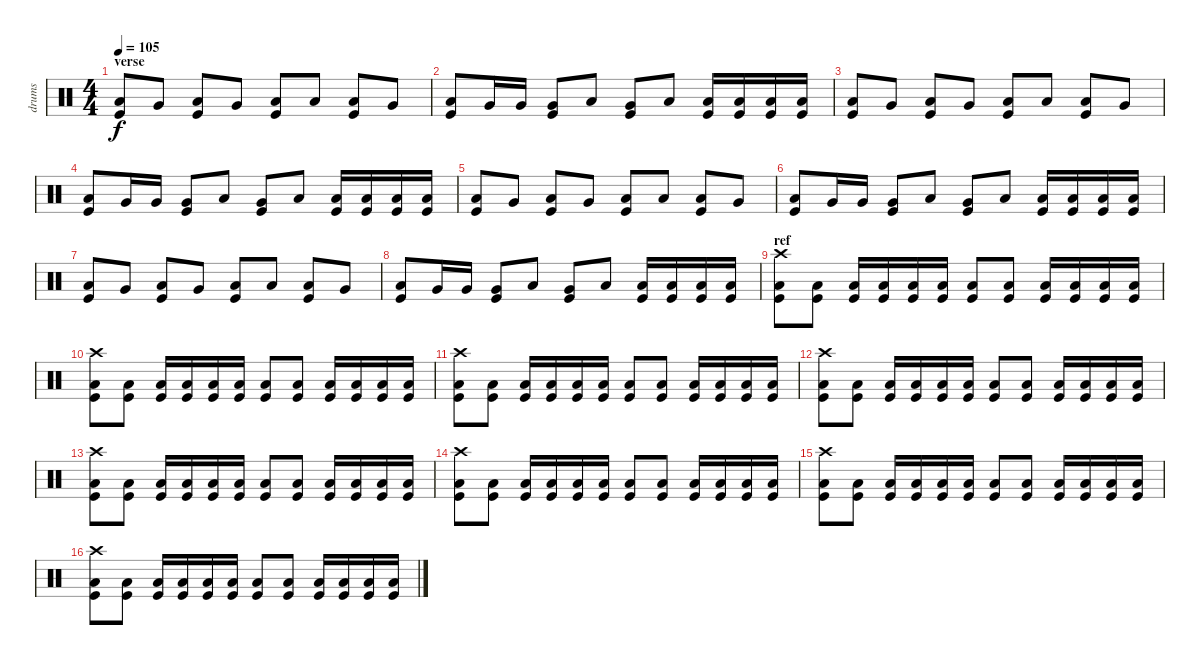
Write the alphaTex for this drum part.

\track ("drums" "drums") {instrument percussion}
\staff {score}
\articulation defaults
\ts (4 4)
\section ("" "verse")
\tempo 105
\clef neutral
\ks c
("Kick (hit)" "Low Floor Tom (hit)").8{dy f} "Very Low Tom (hit)".8 ("Kick (hit)" "Low Floor Tom (hit)").8 "Very Low Tom (hit)".8 ("Kick (hit)" "Low Floor Tom (hit)").8 "Low Floor Tom (hit)".8 ("Kick (hit)" "Low Floor Tom (hit)").8 "Very Low Tom (hit)".8 |
("Low Floor Tom (hit)" "Kick (hit)").8 "Very Low Tom (hit)".16 "Very Low Tom (hit)".16 ("Very Low Tom (hit)" "Kick (hit)").8 "Low Floor Tom (hit)".8 ("Very Low Tom (hit)" "Kick (hit)").8 "Low Floor Tom (hit)".8 ("Low Floor Tom (hit)" "Kick (hit)").16 ("Low Floor Tom (hit)" "Kick (hit)").16 ("Low Floor Tom (hit)" "Kick (hit)").16 ("Low Floor Tom (hit)" "Kick (hit)").16 |
("Kick (hit)" "Low Floor Tom (hit)").8 "Very Low Tom (hit)".8 ("Kick (hit)" "Low Floor Tom (hit)").8 "Very Low Tom (hit)".8 ("Kick (hit)" "Low Floor Tom (hit)").8 "Low Floor Tom (hit)".8 ("Kick (hit)" "Low Floor Tom (hit)").8 "Very Low Tom (hit)".8 |
("Low Floor Tom (hit)" "Kick (hit)").8 "Very Low Tom (hit)".16 "Very Low Tom (hit)".16 ("Very Low Tom (hit)" "Kick (hit)").8 "Low Floor Tom (hit)".8 ("Very Low Tom (hit)" "Kick (hit)").8 "Low Floor Tom (hit)".8 ("Low Floor Tom (hit)" "Kick (hit)").16 ("Low Floor Tom (hit)" "Kick (hit)").16 ("Low Floor Tom (hit)" "Kick (hit)").16 ("Low Floor Tom (hit)" "Kick (hit)").16 |
("Kick (hit)" "Low Floor Tom (hit)").8 "Very Low Tom (hit)".8 ("Kick (hit)" "Low Floor Tom (hit)").8 "Very Low Tom (hit)".8 ("Kick (hit)" "Low Floor Tom (hit)").8 "Low Floor Tom (hit)".8 ("Kick (hit)" "Low Floor Tom (hit)").8 "Very Low Tom (hit)".8 |
("Low Floor Tom (hit)" "Kick (hit)").8 "Very Low Tom (hit)".16 "Very Low Tom (hit)".16 ("Very Low Tom (hit)" "Kick (hit)").8 "Low Floor Tom (hit)".8 ("Very Low Tom (hit)" "Kick (hit)").8 "Low Floor Tom (hit)".8 ("Low Floor Tom (hit)" "Kick (hit)").16 ("Low Floor Tom (hit)" "Kick (hit)").16 ("Low Floor Tom (hit)" "Kick (hit)").16 ("Low Floor Tom (hit)" "Kick (hit)").16 |
("Kick (hit)" "Low Floor Tom (hit)").8 "Very Low Tom (hit)".8 ("Kick (hit)" "Low Floor Tom (hit)").8 "Very Low Tom (hit)".8 ("Kick (hit)" "Low Floor Tom (hit)").8 "Low Floor Tom (hit)".8 ("Kick (hit)" "Low Floor Tom (hit)").8 "Very Low Tom (hit)".8 |
("Low Floor Tom (hit)" "Kick (hit)").8 "Very Low Tom (hit)".16 "Very Low Tom (hit)".16 ("Very Low Tom (hit)" "Kick (hit)").8 "Low Floor Tom (hit)".8 ("Very Low Tom (hit)" "Kick (hit)").8 "Low Floor Tom (hit)".8 ("Low Floor Tom (hit)" "Kick (hit)").16 ("Low Floor Tom (hit)" "Kick (hit)").16 ("Low Floor Tom (hit)" "Kick (hit)").16 ("Low Floor Tom (hit)" "Kick (hit)").16 |
\section ("" "ref")
("Crash high (hit)" "Low Floor Tom (hit)" "Kick (hit)").8 ("Low Floor Tom (hit)" "Kick (hit)").8 ("Low Floor Tom (hit)" "Kick (hit)").16 ("Low Floor Tom (hit)" "Kick (hit)").16 ("Low Floor Tom (hit)" "Kick (hit)").16 ("Low Floor Tom (hit)" "Kick (hit)").16 ("Low Floor Tom (hit)" "Kick (hit)").8 ("Low Floor Tom (hit)" "Kick (hit)").8 ("Low Floor Tom (hit)" "Kick (hit)").16 ("Low Floor Tom (hit)" "Kick (hit)").16 ("Low Floor Tom (hit)" "Kick (hit)").16 ("Low Floor Tom (hit)" "Kick (hit)").16 |
("Crash high (hit)" "Low Floor Tom (hit)" "Kick (hit)").8 ("Low Floor Tom (hit)" "Kick (hit)").8 ("Low Floor Tom (hit)" "Kick (hit)").16 ("Low Floor Tom (hit)" "Kick (hit)").16 ("Low Floor Tom (hit)" "Kick (hit)").16 ("Low Floor Tom (hit)" "Kick (hit)").16 ("Low Floor Tom (hit)" "Kick (hit)").8 ("Low Floor Tom (hit)" "Kick (hit)").8 ("Low Floor Tom (hit)" "Kick (hit)").16 ("Low Floor Tom (hit)" "Kick (hit)").16 ("Low Floor Tom (hit)" "Kick (hit)").16 ("Low Floor Tom (hit)" "Kick (hit)").16 |
("Crash high (hit)" "Low Floor Tom (hit)" "Kick (hit)").8 ("Low Floor Tom (hit)" "Kick (hit)").8 ("Low Floor Tom (hit)" "Kick (hit)").16 ("Low Floor Tom (hit)" "Kick (hit)").16 ("Low Floor Tom (hit)" "Kick (hit)").16 ("Low Floor Tom (hit)" "Kick (hit)").16 ("Low Floor Tom (hit)" "Kick (hit)").8 ("Low Floor Tom (hit)" "Kick (hit)").8 ("Low Floor Tom (hit)" "Kick (hit)").16 ("Low Floor Tom (hit)" "Kick (hit)").16 ("Low Floor Tom (hit)" "Kick (hit)").16 ("Low Floor Tom (hit)" "Kick (hit)").16 |
("Crash high (hit)" "Low Floor Tom (hit)" "Kick (hit)").8 ("Low Floor Tom (hit)" "Kick (hit)").8 ("Low Floor Tom (hit)" "Kick (hit)").16 ("Low Floor Tom (hit)" "Kick (hit)").16 ("Low Floor Tom (hit)" "Kick (hit)").16 ("Low Floor Tom (hit)" "Kick (hit)").16 ("Low Floor Tom (hit)" "Kick (hit)").8 ("Low Floor Tom (hit)" "Kick (hit)").8 ("Low Floor Tom (hit)" "Kick (hit)").16 ("Low Floor Tom (hit)" "Kick (hit)").16 ("Low Floor Tom (hit)" "Kick (hit)").16 ("Low Floor Tom (hit)" "Kick (hit)").16 |
("Crash high (hit)" "Low Floor Tom (hit)" "Kick (hit)").8 ("Low Floor Tom (hit)" "Kick (hit)").8 ("Low Floor Tom (hit)" "Kick (hit)").16 ("Low Floor Tom (hit)" "Kick (hit)").16 ("Low Floor Tom (hit)" "Kick (hit)").16 ("Low Floor Tom (hit)" "Kick (hit)").16 ("Low Floor Tom (hit)" "Kick (hit)").8 ("Low Floor Tom (hit)" "Kick (hit)").8 ("Low Floor Tom (hit)" "Kick (hit)").16 ("Low Floor Tom (hit)" "Kick (hit)").16 ("Low Floor Tom (hit)" "Kick (hit)").16 ("Low Floor Tom (hit)" "Kick (hit)").16 |
("Crash high (hit)" "Low Floor Tom (hit)" "Kick (hit)").8 ("Low Floor Tom (hit)" "Kick (hit)").8 ("Low Floor Tom (hit)" "Kick (hit)").16 ("Low Floor Tom (hit)" "Kick (hit)").16 ("Low Floor Tom (hit)" "Kick (hit)").16 ("Low Floor Tom (hit)" "Kick (hit)").16 ("Low Floor Tom (hit)" "Kick (hit)").8 ("Low Floor Tom (hit)" "Kick (hit)").8 ("Low Floor Tom (hit)" "Kick (hit)").16 ("Low Floor Tom (hit)" "Kick (hit)").16 ("Low Floor Tom (hit)" "Kick (hit)").16 ("Low Floor Tom (hit)" "Kick (hit)").16 |
("Crash high (hit)" "Low Floor Tom (hit)" "Kick (hit)").8 ("Low Floor Tom (hit)" "Kick (hit)").8 ("Low Floor Tom (hit)" "Kick (hit)").16 ("Low Floor Tom (hit)" "Kick (hit)").16 ("Low Floor Tom (hit)" "Kick (hit)").16 ("Low Floor Tom (hit)" "Kick (hit)").16 ("Low Floor Tom (hit)" "Kick (hit)").8 ("Low Floor Tom (hit)" "Kick (hit)").8 ("Low Floor Tom (hit)" "Kick (hit)").16 ("Low Floor Tom (hit)" "Kick (hit)").16 ("Low Floor Tom (hit)" "Kick (hit)").16 ("Low Floor Tom (hit)" "Kick (hit)").16 |
("Crash high (hit)" "Low Floor Tom (hit)" "Kick (hit)").8 ("Low Floor Tom (hit)" "Kick (hit)").8 ("Low Floor Tom (hit)" "Kick (hit)").16 ("Low Floor Tom (hit)" "Kick (hit)").16 ("Low Floor Tom (hit)" "Kick (hit)").16 ("Low Floor Tom (hit)" "Kick (hit)").16 ("Low Floor Tom (hit)" "Kick (hit)").8 ("Low Floor Tom (hit)" "Kick (hit)").8 ("Low Floor Tom (hit)" "Kick (hit)").16 ("Low Floor Tom (hit)" "Kick (hit)").16 ("Low Floor Tom (hit)" "Kick (hit)").16 ("Low Floor Tom (hit)" "Kick (hit)").16
